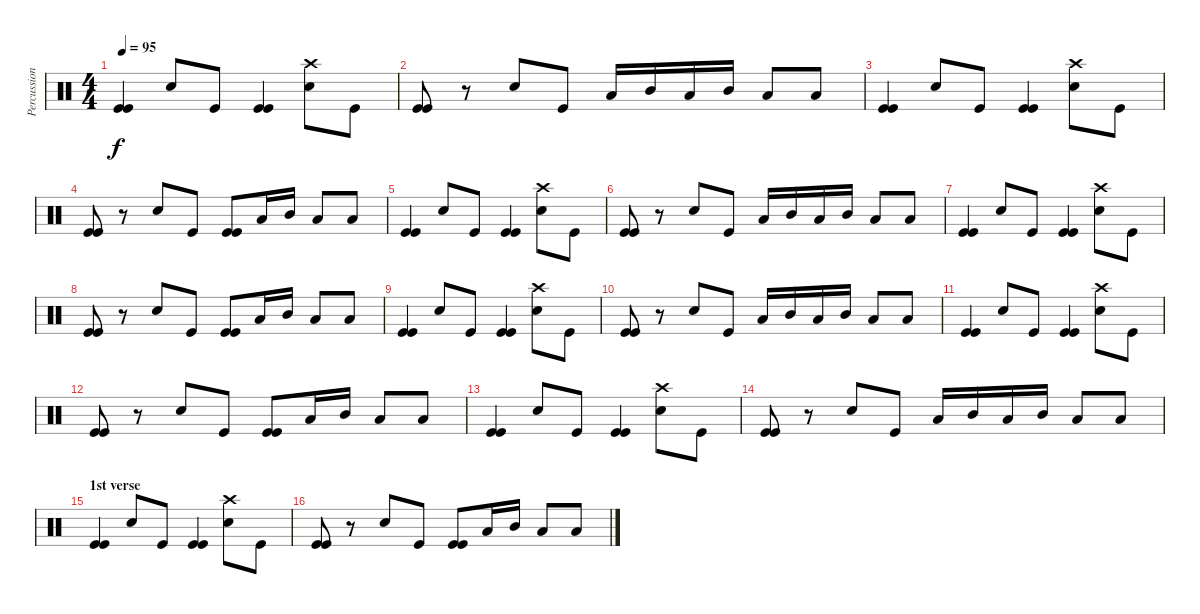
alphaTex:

\track ("Percussion" "Percussion") {instrument percussion}
\staff {score}
\articulation defaults
\ts (4 4)
\tempo 95
\clef neutral
\ks c
("Kick (hit)" "Kick (hit)").4{dy f} "Electric Snare (hit)".8 "Kick (hit)".8 ("Kick (hit)" "Kick (hit)").4 ("Electric Snare (hit)" "Crash high (hit)").8 "Kick (hit)".8 |
("Kick (hit)" "Kick (hit)").8 r.8 "Electric Snare (hit)".8 "Kick (hit)".8 "Low Tom (hit)".16 "Mid Tom (hit)".16 "Low Tom (hit)".16 "Mid Tom (hit)".16 "Low Tom (hit)".8 "Low Tom (hit)".8 |
("Kick (hit)" "Kick (hit)").4 "Electric Snare (hit)".8 "Kick (hit)".8 ("Kick (hit)" "Kick (hit)").4 ("Electric Snare (hit)" "Crash high (hit)").8 "Kick (hit)".8 |
("Kick (hit)" "Kick (hit)").8 r.8 "Electric Snare (hit)".8 "Kick (hit)".8 ("Kick (hit)" "Kick (hit)").8 "Low Tom (hit)".16 "Mid Tom (hit)".16 "Low Tom (hit)".8 "Low Tom (hit)".8 |
("Kick (hit)" "Kick (hit)").4 "Electric Snare (hit)".8 "Kick (hit)".8 ("Kick (hit)" "Kick (hit)").4 ("Electric Snare (hit)" "Crash high (hit)").8 "Kick (hit)".8 |
("Kick (hit)" "Kick (hit)").8 r.8 "Electric Snare (hit)".8 "Kick (hit)".8 "Low Tom (hit)".16 "Mid Tom (hit)".16 "Low Tom (hit)".16 "Mid Tom (hit)".16 "Low Tom (hit)".8 "Low Tom (hit)".8 |
("Kick (hit)" "Kick (hit)").4 "Electric Snare (hit)".8 "Kick (hit)".8 ("Kick (hit)" "Kick (hit)").4 ("Electric Snare (hit)" "Crash high (hit)").8 "Kick (hit)".8 |
("Kick (hit)" "Kick (hit)").8 r.8 "Electric Snare (hit)".8 "Kick (hit)".8 ("Kick (hit)" "Kick (hit)").8 "Low Tom (hit)".16 "Mid Tom (hit)".16 "Low Tom (hit)".8 "Low Tom (hit)".8 |
("Kick (hit)" "Kick (hit)").4 "Electric Snare (hit)".8 "Kick (hit)".8 ("Kick (hit)" "Kick (hit)").4 ("Electric Snare (hit)" "Crash high (hit)").8 "Kick (hit)".8 |
("Kick (hit)" "Kick (hit)").8 r.8 "Electric Snare (hit)".8 "Kick (hit)".8 "Low Tom (hit)".16 "Mid Tom (hit)".16 "Low Tom (hit)".16 "Mid Tom (hit)".16 "Low Tom (hit)".8 "Low Tom (hit)".8 |
("Kick (hit)" "Kick (hit)").4 "Electric Snare (hit)".8 "Kick (hit)".8 ("Kick (hit)" "Kick (hit)").4 ("Electric Snare (hit)" "Crash high (hit)").8 "Kick (hit)".8 |
("Kick (hit)" "Kick (hit)").8 r.8 "Electric Snare (hit)".8 "Kick (hit)".8 ("Kick (hit)" "Kick (hit)").8 "Low Tom (hit)".16 "Mid Tom (hit)".16 "Low Tom (hit)".8 "Low Tom (hit)".8 |
("Kick (hit)" "Kick (hit)").4 "Electric Snare (hit)".8 "Kick (hit)".8 ("Kick (hit)" "Kick (hit)").4 ("Electric Snare (hit)" "Crash high (hit)").8 "Kick (hit)".8 |
("Kick (hit)" "Kick (hit)").8 r.8 "Electric Snare (hit)".8 "Kick (hit)".8 "Low Tom (hit)".16 "Mid Tom (hit)".16 "Low Tom (hit)".16 "Mid Tom (hit)".16 "Low Tom (hit)".8 "Low Tom (hit)".8 |
\section ("" "1st verse")
("Kick (hit)" "Kick (hit)").4 "Electric Snare (hit)".8 "Kick (hit)".8 ("Kick (hit)" "Kick (hit)").4 ("Electric Snare (hit)" "Crash high (hit)").8 "Kick (hit)".8 |
("Kick (hit)" "Kick (hit)").8 r.8 "Electric Snare (hit)".8 "Kick (hit)".8 ("Kick (hit)" "Kick (hit)").8 "Low Tom (hit)".16 "Mid Tom (hit)".16 "Low Tom (hit)".8 "Low Tom (hit)".8
